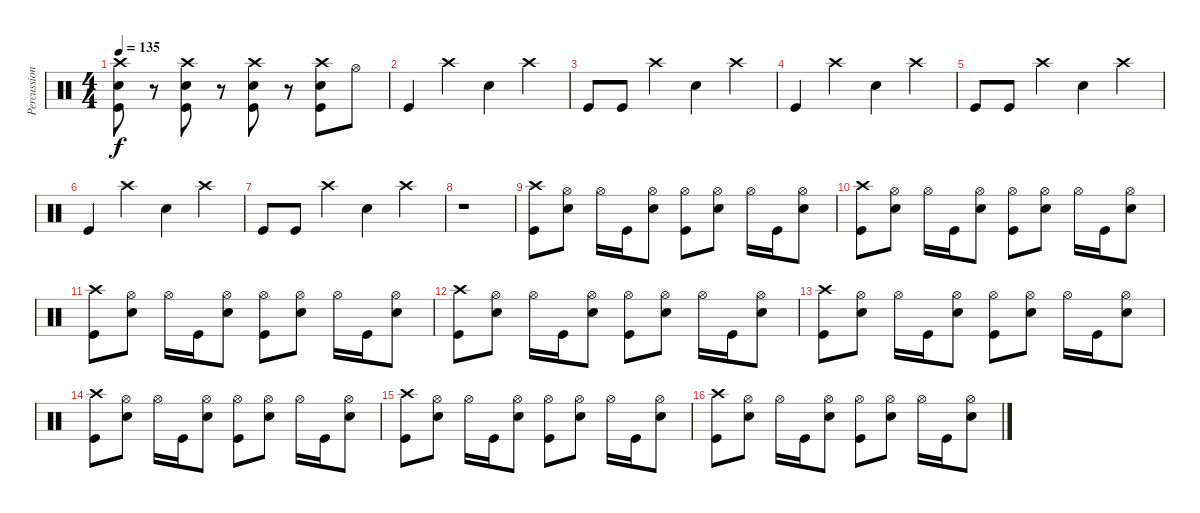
\track ("Percussion" "Percussion") {instrument percussion}
\staff {score}
\articulation defaults
\ts (4 4)
\tempo 135
\clef neutral
\ks c
("Crash high (hit)" "Snare (hit) 2" "Kick (hit)").8{dy f} r.8 ("Crash high (hit)" "Snare (hit) 2" "Kick (hit)").8 r.8 ("Crash high (hit)" "Snare (hit) 2" "Kick (hit)").8 r.8 ("Crash high (hit)" "Snare (hit) 2" "Kick (hit)").8 "Hi-Hat (open)".8 |
"Kick (hit)".4 "Crash high (hit)".4 "Snare (hit) 2".4 "Crash high (hit)".4 |
"Kick (hit)".8 "Kick (hit)".8 "Crash high (hit)".4 "Snare (hit) 2".4 "Crash high (hit)".4 |
"Kick (hit)".4 "Crash high (hit)".4 "Snare (hit) 2".4 "Crash high (hit)".4 |
"Kick (hit)".8 "Kick (hit)".8 "Crash high (hit)".4 "Snare (hit) 2".4 "Crash high (hit)".4 |
"Kick (hit)".4 "Crash high (hit)".4 "Snare (hit) 2".4 "Crash high (hit)".4 |
"Kick (hit)".8 "Kick (hit)".8 "Crash high (hit)".4 "Snare (hit) 2".4 "Crash high (hit)".4 |
r.1 |
("Crash high (hit)" "Kick (hit)").8 ("Hi-Hat (open)" "Snare (hit) 2").8 "Hi-Hat (open)".16 "Kick (hit)".16 ("Hi-Hat (open)" "Snare (hit) 2").8 ("Hi-Hat (open)" "Kick (hit)").8 ("Hi-Hat (open)" "Snare (hit) 2").8 "Hi-Hat (open)".16 "Kick (hit)".16 ("Hi-Hat (open)" "Snare (hit) 2").8 |
("Crash high (hit)" "Kick (hit)").8 ("Hi-Hat (open)" "Snare (hit) 2").8 "Hi-Hat (open)".16 "Kick (hit)".16 ("Hi-Hat (open)" "Snare (hit) 2").8 ("Hi-Hat (open)" "Kick (hit)").8 ("Hi-Hat (open)" "Snare (hit) 2").8 "Hi-Hat (open)".16 "Kick (hit)".16 ("Hi-Hat (open)" "Snare (hit) 2").8 |
("Crash high (hit)" "Kick (hit)").8 ("Hi-Hat (open)" "Snare (hit) 2").8 "Hi-Hat (open)".16 "Kick (hit)".16 ("Hi-Hat (open)" "Snare (hit) 2").8 ("Hi-Hat (open)" "Kick (hit)").8 ("Hi-Hat (open)" "Snare (hit) 2").8 "Hi-Hat (open)".16 "Kick (hit)".16 ("Hi-Hat (open)" "Snare (hit) 2").8 |
("Crash high (hit)" "Kick (hit)").8 ("Hi-Hat (open)" "Snare (hit) 2").8 "Hi-Hat (open)".16 "Kick (hit)".16 ("Hi-Hat (open)" "Snare (hit) 2").8 ("Hi-Hat (open)" "Kick (hit)").8 ("Hi-Hat (open)" "Snare (hit) 2").8 "Hi-Hat (open)".16 "Kick (hit)".16 ("Hi-Hat (open)" "Snare (hit) 2").8 |
("Crash high (hit)" "Kick (hit)").8 ("Hi-Hat (open)" "Snare (hit) 2").8 "Hi-Hat (open)".16 "Kick (hit)".16 ("Hi-Hat (open)" "Snare (hit) 2").8 ("Hi-Hat (open)" "Kick (hit)").8 ("Hi-Hat (open)" "Snare (hit) 2").8 "Hi-Hat (open)".16 "Kick (hit)".16 ("Hi-Hat (open)" "Snare (hit) 2").8 |
("Crash high (hit)" "Kick (hit)").8 ("Hi-Hat (open)" "Snare (hit) 2").8 "Hi-Hat (open)".16 "Kick (hit)".16 ("Hi-Hat (open)" "Snare (hit) 2").8 ("Hi-Hat (open)" "Kick (hit)").8 ("Hi-Hat (open)" "Snare (hit) 2").8 "Hi-Hat (open)".16 "Kick (hit)".16 ("Hi-Hat (open)" "Snare (hit) 2").8 |
("Crash high (hit)" "Kick (hit)").8 ("Hi-Hat (open)" "Snare (hit) 2").8 "Hi-Hat (open)".16 "Kick (hit)".16 ("Hi-Hat (open)" "Snare (hit) 2").8 ("Hi-Hat (open)" "Kick (hit)").8 ("Hi-Hat (open)" "Snare (hit) 2").8 "Hi-Hat (open)".16 "Kick (hit)".16 ("Hi-Hat (open)" "Snare (hit) 2").8 |
("Crash high (hit)" "Kick (hit)").8 ("Hi-Hat (open)" "Snare (hit) 2").8 "Hi-Hat (open)".16 "Kick (hit)".16 ("Hi-Hat (open)" "Snare (hit) 2").8 ("Hi-Hat (open)" "Kick (hit)").8 ("Hi-Hat (open)" "Snare (hit) 2").8 "Hi-Hat (open)".16 "Kick (hit)".16 ("Hi-Hat (open)" "Snare (hit) 2").8
